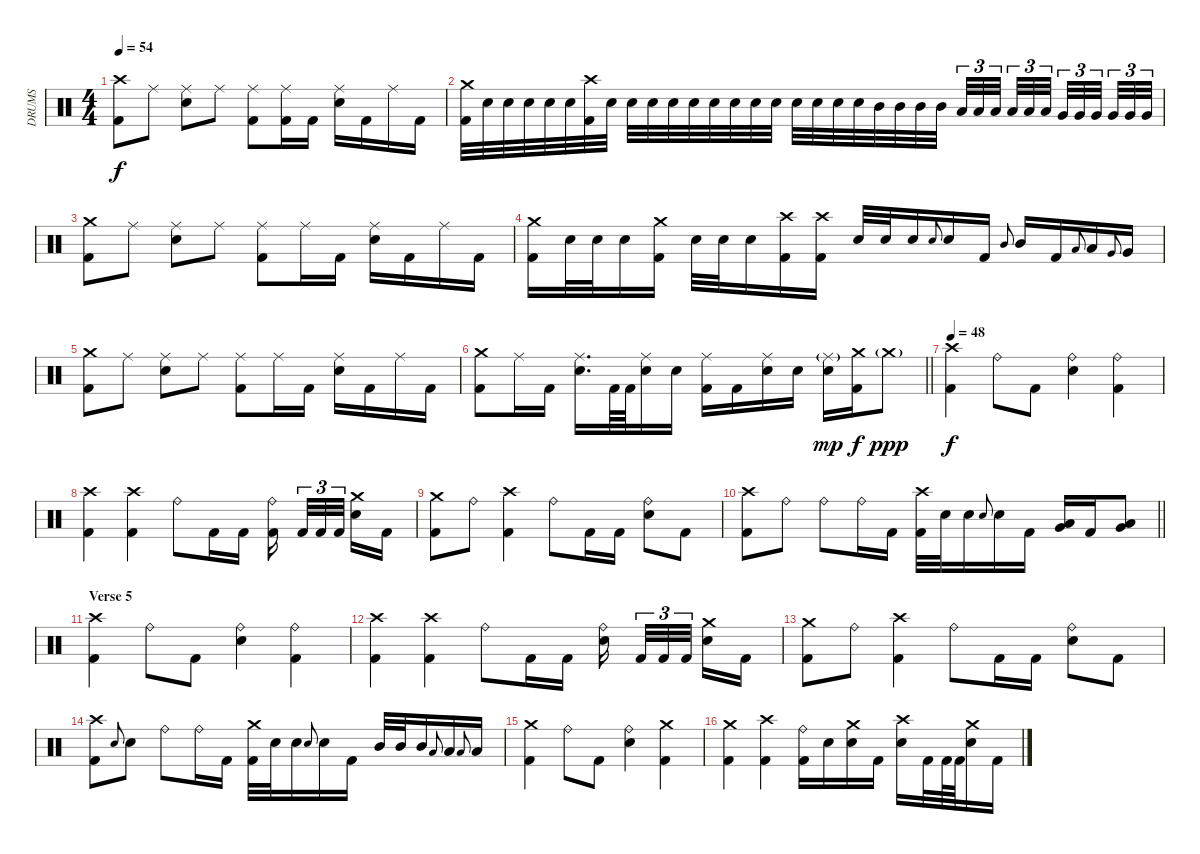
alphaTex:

\track ("DRUMS" "DRUMS") {instrument percussion}
\staff {score}
\articulation defaults
\ts (4 4)
\tempo 54
\clef neutral
\ks c
("Crash high (hit)" "Kick (hit) 2").8{dy f} "Ride (middle)".8 ("Ride (middle)" "Snare (hit) 2").8 "Ride (middle)".8 ("Ride (middle)" "Kick (hit) 2").8 ("Ride (middle)" "Kick (hit) 2").16 "Kick (hit) 2".16 ("Ride (middle)" "Snare (hit) 2").16 "Kick (hit) 2".16 "Ride (middle)".16 "Kick (hit) 2".16 |
("Crash medium (hit)" "Kick (hit) 2").32 "Snare (hit) 2".32 "Snare (hit) 2".32 "Snare (hit) 2".32 "Snare (hit) 2".32 "Snare (hit) 2".32 ("Crash high (hit)" "Kick (hit) 2").32 "Snare (hit) 2".32 "Snare (hit) 2".32 "Snare (hit) 2".32 "Snare (hit) 2".32 "Snare (hit) 2".32 "Snare (hit) 2".32 "Snare (hit) 2".32 "Snare (hit) 2".32 "Snare (hit) 2".32 "Snare (hit) 2".32 "Snare (hit) 2".32 "Snare (hit) 2".32 "Snare (hit) 2".32 "Mid Tom (hit)".32 "Mid Tom (hit)".32 "Mid Tom (hit)".32 "Mid Tom (hit)".32 "Low Tom (hit)".32{tu (3 2)} "Low Tom (hit)".32{tu (3 2)} "Low Tom (hit)".32{tu (3 2) beam splitsecondary} "Low Tom (hit)".32{tu (3 2)} "Low Tom (hit)".32{tu (3 2)} "Low Tom (hit)".32{tu (3 2) beam splitsecondary} "Very Low Tom (hit)".32{tu (3 2)} "Very Low Tom (hit)".32{tu (3 2)} "Very Low Tom (hit)".32{tu (3 2) beam splitsecondary} "Very Low Tom (hit)".32{tu (3 2)} "Very Low Tom (hit)".32{tu (3 2)} "Very Low Tom (hit)".32{tu (3 2)} |
("Crash medium (hit)" "Kick (hit) 2").8 "Ride (middle)".8 ("Ride (middle)" "Snare (hit) 2").8 "Ride (middle)".8 ("Ride (middle)" "Kick (hit) 2").8 "Ride (middle)".16 "Kick (hit) 2".16 ("Ride (middle)" "Snare (hit) 2").16 "Kick (hit) 2".16 "Ride (middle)".16 "Kick (hit) 2".16 |
("Crash medium (hit)" "Kick (hit) 2").16 "Snare (hit) 2".32 "Snare (hit) 2".32 "Snare (hit) 2".16 ("Crash medium (hit)" "Kick (hit) 2").16 "Snare (hit) 2".32 "Snare (hit) 2".32 "Snare (hit) 2".16 ("Crash high (hit)" "Kick (hit) 2").16 ("Crash high (hit)" "Kick (hit) 2").16 "Snare (hit) 2".32 "Snare (hit) 2".32 "Snare (hit) 2".16 "Snare (hit) 2".8{gr onbeat} "Snare (hit) 2".16 "Kick (hit) 2".16 "Mid Tom (hit)".8{gr onbeat} "Mid Tom (hit)".16 "Kick (hit) 2".16 "Low Tom (hit)".8{gr onbeat} "Low Tom (hit)".16 "Very Low Tom (hit)".8{gr onbeat} "Very Low Tom (hit)".16 |
("Crash medium (hit)" "Kick (hit) 2").8 "Ride (middle)".8 ("Ride (middle)" "Snare (hit) 2").8 "Ride (middle)".8 ("Ride (middle)" "Kick (hit) 2").8 "Ride (middle)".16 "Kick (hit) 2".16 ("Ride (middle)" "Snare (hit) 2").16 "Kick (hit) 2".16 "Ride (middle)".16 "Kick (hit) 2".16 |
\barLineRight lightlight
("Crash medium (hit)" "Kick (hit) 2").8 "Ride (middle)".16 "Kick (hit) 2".16 ("Ride (middle)" "Snare (hit) 2").16{d} "Kick (hit) 2".64 "Kick (hit) 2".64 ("Ride (middle)" "Snare (hit) 2").16 "Snare (hit) 2".16 ("Ride (middle)" "Kick (hit) 2").16 "Kick (hit) 2".16 ("Ride (middle)" "Snare (hit) 2").16 "Snare (hit) 2".16 ("Ride (middle)"{g} "Snare (hit) 2").16{dy mp} ("Crash medium (hit)" "Kick (hit) 2").16{dy f} "Crash medium (hit)"{g}.8{dy ppp} |
\tempo 48
("Crash high (hit)" "Kick (hit) 2").4{dy f} "Ride (bell)".8 "Kick (hit) 2".8 ("Ride (bell)" "Snare (hit) 2").4 ("Ride (bell)" "Kick (hit) 2").4 |
("Crash high (hit)" "Kick (hit) 2").4 ("Crash high (hit)" "Kick (hit) 2").4 "Ride (bell)".8 "Kick (hit) 2".16 "Kick (hit) 2".16 ("Ride (bell)" "Kick (hit) 2").16{beam splitsecondary} "Kick (hit) 2".32{tu (3 2)} "Kick (hit) 2".32{tu (3 2)} "Kick (hit) 2".32{tu (3 2) beam splitsecondary} ("Crash medium (hit)" "Snare (hit) 2").16 "Kick (hit) 2".16 |
("Crash medium (hit)" "Kick (hit) 2").8 "Ride (bell)".8 ("Crash high (hit)" "Kick (hit) 2").4 "Ride (bell)".8 "Kick (hit) 2".16 "Kick (hit) 2".16 ("Ride (bell)" "Snare (hit) 2").8 "Kick (hit) 2".8 |
\barLineRight lightlight
("Crash high (hit)" "Kick (hit) 2").8 "Ride (bell)".8 "Ride (bell)".8 "Ride (bell)".16 "Kick (hit) 2".16 ("Crash high (hit)" "Kick (hit) 2").32 "Snare (hit) 2".32 "Snare (hit) 2".16 "Snare (hit) 2".8{gr onbeat} "Snare (hit) 2".16 "Kick (hit) 2".16 ("Low Tom (hit)" "Very Low Tom (hit)").16 "Kick (hit) 2".16 ("Very Low Tom (hit)" "Low Floor Tom (hit)").8 |
\section ("" "Verse 5")
("Crash high (hit)" "Kick (hit) 2").4 "Ride (bell)".8 "Kick (hit) 2".8 ("Ride (bell)" "Snare (hit) 2").4 ("Ride (bell)" "Kick (hit) 2").4 |
("Crash high (hit)" "Kick (hit) 2").4 ("Crash high (hit)" "Kick (hit) 2").4 "Ride (bell)".8 "Kick (hit) 2".16 "Kick (hit) 2".16 ("Ride (bell)" "Snare (hit) 2").16{beam splitsecondary} "Kick (hit) 2".32{tu (3 2)} "Kick (hit) 2".32{tu (3 2)} "Kick (hit) 2".32{tu (3 2) beam splitsecondary} ("Crash medium (hit)" "Snare (hit) 2").16 "Kick (hit) 2".16 |
("Crash medium (hit)" "Kick (hit) 2").8 "Ride (bell)".8 ("Crash high (hit)" "Kick (hit) 2").4 "Ride (bell)".8 "Kick (hit) 2".16 "Kick (hit) 2".16 ("Ride (bell)" "Snare (hit) 2").8 "Kick (hit) 2".8 |
("Crash high (hit)" "Kick (hit) 2").8 "Snare (hit) 2".8{gr onbeat} "Snare (hit) 2".8 "Ride (bell)".8 "Ride (bell)".16 "Kick (hit) 2".16 ("Crash medium (hit)" "Kick (hit) 2").32 "Snare (hit) 2".32 "Snare (hit) 2".16 "Snare (hit) 2".8{gr onbeat} "Snare (hit) 2".16 "Kick (hit) 2".16 "Mid Tom (hit)".32 "Mid Tom (hit)".32 "Mid Tom (hit)".16 "Low Tom (hit)".8{gr onbeat} "Low Tom (hit)".16 "Low Tom (hit)".8{gr onbeat} "Low Tom (hit)".16 |
("Crash medium (hit)" "Kick (hit) 2").4 "Ride (bell)".8 "Kick (hit) 2".8 ("Ride (bell)" "Snare (hit) 2").4 ("Crash medium (hit)" "Kick (hit) 2").4 |
("Crash medium (hit)" "Kick (hit) 2").4 ("Crash high (hit)" "Kick (hit) 2").4 ("Ride (bell)" "Kick (hit) 2").16 "Snare (hit) 2".16 ("Crash medium (hit)" "Snare (hit) 2").16 "Kick (hit) 2".16 ("Crash high (hit)" "Snare (hit) 2").16 "Kick (hit) 2".32 "Kick (hit) 2".64 "Kick (hit) 2".64 ("Crash medium (hit)" "Snare (hit) 2").16 "Kick (hit) 2".16
